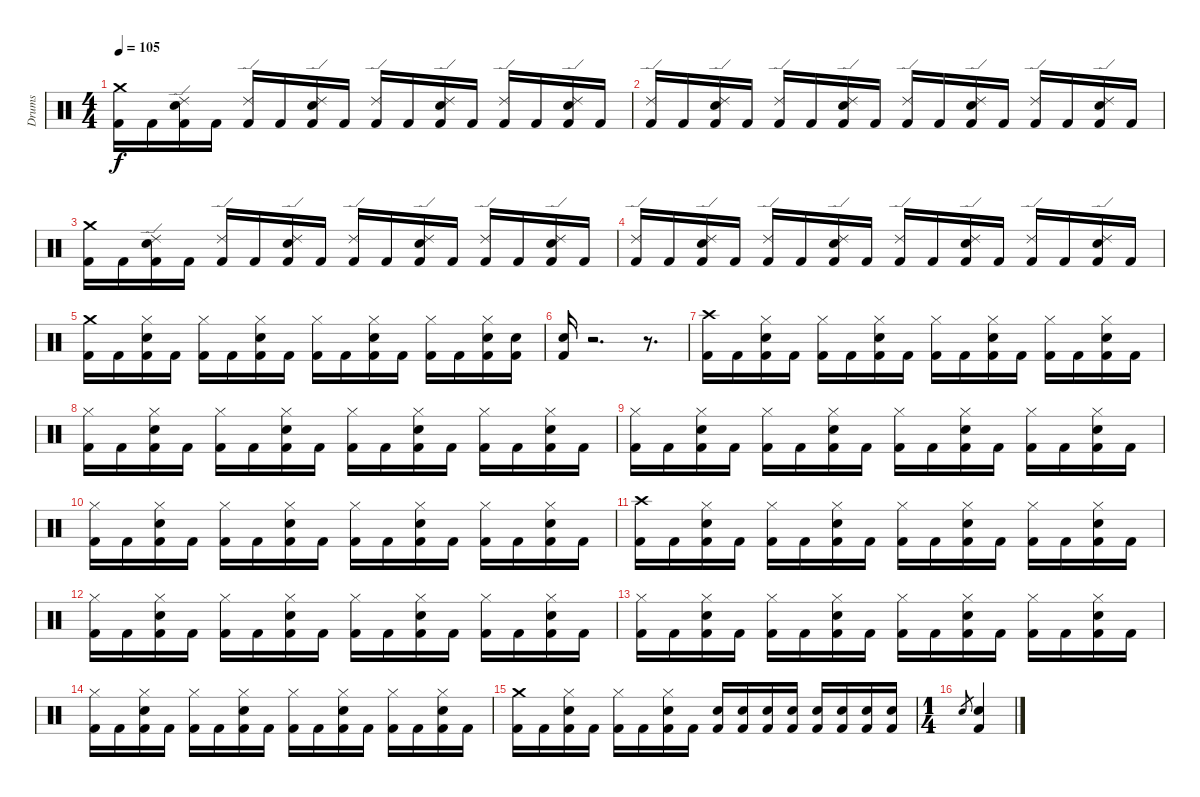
\track ("Drums" "Drums") {instrument percussion}
\staff {score}
\articulation defaults
\ts (4 4)
\tempo 105
\clef neutral
\ks c
("Crash medium (hit)" "Kick (hit) 2").16{dy f} "Kick (hit) 2".16 ("Ride (edge) 2" "Electric Snare (hit)" "Kick (hit) 2").16 "Kick (hit) 2".16 ("Ride (edge) 2" "Kick (hit) 2").16 "Kick (hit) 2".16 ("Ride (edge) 2" "Electric Snare (hit)" "Kick (hit) 2").16 "Kick (hit) 2".16 ("Ride (edge) 2" "Kick (hit) 2").16 "Kick (hit) 2".16 ("Ride (edge) 2" "Electric Snare (hit)" "Kick (hit) 2").16 "Kick (hit) 2".16 ("Ride (edge) 2" "Kick (hit) 2").16 "Kick (hit) 2".16 ("Ride (edge) 2" "Electric Snare (hit)" "Kick (hit) 2").16 "Kick (hit) 2".16 |
("Ride (edge) 2" "Kick (hit) 2").16 "Kick (hit) 2".16 ("Ride (edge) 2" "Electric Snare (hit)" "Kick (hit) 2").16 "Kick (hit) 2".16 ("Ride (edge) 2" "Kick (hit) 2").16 "Kick (hit) 2".16 ("Ride (edge) 2" "Electric Snare (hit)" "Kick (hit) 2").16 "Kick (hit) 2".16 ("Ride (edge) 2" "Kick (hit) 2").16 "Kick (hit) 2".16 ("Ride (edge) 2" "Electric Snare (hit)" "Kick (hit) 2").16 "Kick (hit) 2".16 ("Ride (edge) 2" "Kick (hit) 2").16 "Kick (hit) 2".16 ("Ride (edge) 2" "Electric Snare (hit)" "Kick (hit) 2").16 "Kick (hit) 2".16 |
("Crash medium (hit)" "Kick (hit) 2").16 "Kick (hit) 2".16 ("Ride (edge) 2" "Electric Snare (hit)" "Kick (hit) 2").16 "Kick (hit) 2".16 ("Ride (edge) 2" "Kick (hit) 2").16 "Kick (hit) 2".16 ("Ride (edge) 2" "Electric Snare (hit)" "Kick (hit) 2").16 "Kick (hit) 2".16 ("Ride (edge) 2" "Kick (hit) 2").16 "Kick (hit) 2".16 ("Ride (edge) 2" "Electric Snare (hit)" "Kick (hit) 2").16 "Kick (hit) 2".16 ("Ride (edge) 2" "Kick (hit) 2").16 "Kick (hit) 2".16 ("Ride (edge) 2" "Electric Snare (hit)" "Kick (hit) 2").16 "Kick (hit) 2".16 |
("Ride (edge) 2" "Kick (hit) 2").16 "Kick (hit) 2".16 ("Ride (edge) 2" "Electric Snare (hit)" "Kick (hit) 2").16 "Kick (hit) 2".16 ("Ride (edge) 2" "Kick (hit) 2").16 "Kick (hit) 2".16 ("Ride (edge) 2" "Electric Snare (hit)" "Kick (hit) 2").16 "Kick (hit) 2".16 ("Ride (edge) 2" "Kick (hit) 2").16 "Kick (hit) 2".16 ("Ride (edge) 2" "Electric Snare (hit)" "Kick (hit) 2").16 "Kick (hit) 2".16 ("Ride (edge) 2" "Kick (hit) 2").16 "Kick (hit) 2".16 ("Ride (edge) 2" "Electric Snare (hit)" "Kick (hit) 2").16 "Kick (hit) 2".16 |
("Crash medium (hit)" "Kick (hit) 2").16 "Kick (hit) 2".16 ("Hi-Hat (closed)" "Electric Snare (hit)" "Kick (hit) 2").16 "Kick (hit) 2".16 ("Hi-Hat (closed)" "Kick (hit) 2").16 "Kick (hit) 2".16 ("Hi-Hat (closed)" "Electric Snare (hit)" "Kick (hit) 2").16 "Kick (hit) 2".16 ("Hi-Hat (closed)" "Kick (hit) 2").16 "Kick (hit) 2".16 ("Hi-Hat (closed)" "Electric Snare (hit)" "Kick (hit) 2").16 "Kick (hit) 2".16 ("Hi-Hat (closed)" "Kick (hit) 2").16 "Kick (hit) 2".16 ("Hi-Hat (closed)" "Electric Snare (hit)" "Kick (hit) 2").16 ("Electric Snare (hit)" "Kick (hit) 2").16 |
("Electric Snare (hit)" "Kick (hit) 2").16 r.2{d} r.8{d} |
("Crash high (hit)" "Kick (hit) 2").16 "Kick (hit) 2".16 ("Hi-Hat (closed)" "Electric Snare (hit)" "Kick (hit) 2").16 "Kick (hit) 2".16 ("Hi-Hat (closed)" "Kick (hit) 2").16 "Kick (hit) 2".16 ("Hi-Hat (closed)" "Electric Snare (hit)" "Kick (hit) 2").16 "Kick (hit) 2".16 ("Hi-Hat (closed)" "Kick (hit) 2").16 "Kick (hit) 2".16 ("Hi-Hat (closed)" "Electric Snare (hit)" "Kick (hit) 2").16 "Kick (hit) 2".16 ("Hi-Hat (closed)" "Kick (hit) 2").16 "Kick (hit) 2".16 ("Hi-Hat (closed)" "Electric Snare (hit)" "Kick (hit) 2").16 "Kick (hit) 2".16 |
("Hi-Hat (closed)" "Kick (hit) 2").16 "Kick (hit) 2".16 ("Hi-Hat (closed)" "Electric Snare (hit)" "Kick (hit) 2").16 "Kick (hit) 2".16 ("Hi-Hat (closed)" "Kick (hit) 2").16 "Kick (hit) 2".16 ("Hi-Hat (closed)" "Electric Snare (hit)" "Kick (hit) 2").16 "Kick (hit) 2".16 ("Hi-Hat (closed)" "Kick (hit) 2").16 "Kick (hit) 2".16 ("Hi-Hat (closed)" "Electric Snare (hit)" "Kick (hit) 2").16 "Kick (hit) 2".16 ("Hi-Hat (closed)" "Kick (hit) 2").16 "Kick (hit) 2".16 ("Hi-Hat (closed)" "Electric Snare (hit)" "Kick (hit) 2").16 "Kick (hit) 2".16 |
("Hi-Hat (closed)" "Kick (hit) 2").16 "Kick (hit) 2".16 ("Hi-Hat (closed)" "Electric Snare (hit)" "Kick (hit) 2").16 "Kick (hit) 2".16 ("Hi-Hat (closed)" "Kick (hit) 2").16 "Kick (hit) 2".16 ("Hi-Hat (closed)" "Electric Snare (hit)" "Kick (hit) 2").16 "Kick (hit) 2".16 ("Hi-Hat (closed)" "Kick (hit) 2").16 "Kick (hit) 2".16 ("Hi-Hat (closed)" "Electric Snare (hit)" "Kick (hit) 2").16 "Kick (hit) 2".16 ("Hi-Hat (closed)" "Kick (hit) 2").16 "Kick (hit) 2".16 ("Hi-Hat (closed)" "Electric Snare (hit)" "Kick (hit) 2").16 "Kick (hit) 2".16 |
("Hi-Hat (closed)" "Kick (hit) 2").16 "Kick (hit) 2".16 ("Hi-Hat (closed)" "Electric Snare (hit)" "Kick (hit) 2").16 "Kick (hit) 2".16 ("Hi-Hat (closed)" "Kick (hit) 2").16 "Kick (hit) 2".16 ("Hi-Hat (closed)" "Electric Snare (hit)" "Kick (hit) 2").16 "Kick (hit) 2".16 ("Hi-Hat (closed)" "Kick (hit) 2").16 "Kick (hit) 2".16 ("Hi-Hat (closed)" "Electric Snare (hit)" "Kick (hit) 2").16 "Kick (hit) 2".16 ("Hi-Hat (closed)" "Kick (hit) 2").16 "Kick (hit) 2".16 ("Hi-Hat (closed)" "Electric Snare (hit)" "Kick (hit) 2").16 "Kick (hit) 2".16 |
("Crash high (hit)" "Kick (hit) 2").16 "Kick (hit) 2".16 ("Hi-Hat (closed)" "Electric Snare (hit)" "Kick (hit) 2").16 "Kick (hit) 2".16 ("Hi-Hat (closed)" "Kick (hit) 2").16 "Kick (hit) 2".16 ("Hi-Hat (closed)" "Electric Snare (hit)" "Kick (hit) 2").16 "Kick (hit) 2".16 ("Hi-Hat (closed)" "Kick (hit) 2").16 "Kick (hit) 2".16 ("Hi-Hat (closed)" "Electric Snare (hit)" "Kick (hit) 2").16 "Kick (hit) 2".16 ("Hi-Hat (closed)" "Kick (hit) 2").16 "Kick (hit) 2".16 ("Hi-Hat (closed)" "Electric Snare (hit)" "Kick (hit) 2").16 "Kick (hit) 2".16 |
("Hi-Hat (closed)" "Kick (hit) 2").16 "Kick (hit) 2".16 ("Hi-Hat (closed)" "Electric Snare (hit)" "Kick (hit) 2").16 "Kick (hit) 2".16 ("Hi-Hat (closed)" "Kick (hit) 2").16 "Kick (hit) 2".16 ("Hi-Hat (closed)" "Electric Snare (hit)" "Kick (hit) 2").16 "Kick (hit) 2".16 ("Hi-Hat (closed)" "Kick (hit) 2").16 "Kick (hit) 2".16 ("Hi-Hat (closed)" "Electric Snare (hit)" "Kick (hit) 2").16 "Kick (hit) 2".16 ("Hi-Hat (closed)" "Kick (hit) 2").16 "Kick (hit) 2".16 ("Hi-Hat (closed)" "Electric Snare (hit)" "Kick (hit) 2").16 "Kick (hit) 2".16 |
("Hi-Hat (closed)" "Kick (hit) 2").16 "Kick (hit) 2".16 ("Hi-Hat (closed)" "Electric Snare (hit)" "Kick (hit) 2").16 "Kick (hit) 2".16 ("Hi-Hat (closed)" "Kick (hit) 2").16 "Kick (hit) 2".16 ("Hi-Hat (closed)" "Electric Snare (hit)" "Kick (hit) 2").16 "Kick (hit) 2".16 ("Hi-Hat (closed)" "Kick (hit) 2").16 "Kick (hit) 2".16 ("Hi-Hat (closed)" "Electric Snare (hit)" "Kick (hit) 2").16 "Kick (hit) 2".16 ("Hi-Hat (closed)" "Kick (hit) 2").16 "Kick (hit) 2".16 ("Hi-Hat (closed)" "Electric Snare (hit)" "Kick (hit) 2").16 "Kick (hit) 2".16 |
("Hi-Hat (closed)" "Kick (hit) 2").16 "Kick (hit) 2".16 ("Hi-Hat (closed)" "Electric Snare (hit)" "Kick (hit) 2").16 "Kick (hit) 2".16 ("Hi-Hat (closed)" "Kick (hit) 2").16 "Kick (hit) 2".16 ("Hi-Hat (closed)" "Electric Snare (hit)" "Kick (hit) 2").16 "Kick (hit) 2".16 ("Hi-Hat (closed)" "Kick (hit) 2").16 "Kick (hit) 2".16 ("Hi-Hat (closed)" "Electric Snare (hit)" "Kick (hit) 2").16 "Kick (hit) 2".16 ("Hi-Hat (closed)" "Kick (hit) 2").16 "Kick (hit) 2".16 ("Hi-Hat (closed)" "Electric Snare (hit)" "Kick (hit) 2").16 "Kick (hit) 2".16 |
("Crash medium (hit)" "Kick (hit) 2").16 "Kick (hit) 2".16 ("Hi-Hat (closed)" "Electric Snare (hit)" "Kick (hit) 2").16 "Kick (hit) 2".16 ("Hi-Hat (closed)" "Kick (hit) 2").16 "Kick (hit) 2".16 ("Hi-Hat (closed)" "Electric Snare (hit)" "Kick (hit) 2").16 "Kick (hit) 2".16 ("Electric Snare (hit)" "Kick (hit) 2").16 ("Electric Snare (hit)" "Kick (hit) 2").16 ("Electric Snare (hit)" "Kick (hit) 2").16 ("Electric Snare (hit)" "Kick (hit) 2").16 ("Electric Snare (hit)" "Kick (hit) 2").16 ("Electric Snare (hit)" "Kick (hit) 2").16 ("Electric Snare (hit)" "Kick (hit) 2").16 ("Electric Snare (hit)" "Kick (hit) 2").16 |
\ts (1 4)
"Electric Snare (hit)".8{gr} ("Electric Snare (hit)" "Kick (hit) 2").4
